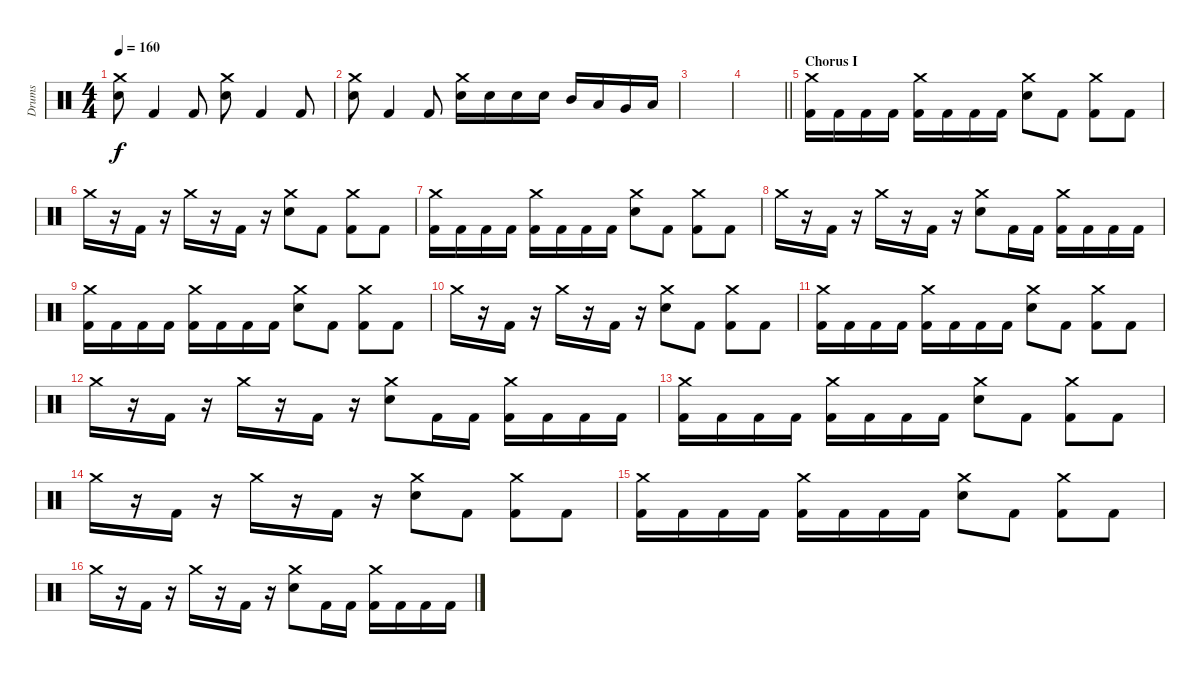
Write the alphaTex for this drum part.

\track ("Drums" "Drums") {instrument percussion}
\staff {score}
\articulation defaults
\ts (4 4)
\tempo 160
\clef neutral
\ks c
("Crash medium (hit)" "Snare (hit) 2").8{dy f} "Kick (hit) 2".4 "Kick (hit) 2".8 ("Crash medium (hit)" "Snare (hit) 2").8 "Kick (hit) 2".4 "Kick (hit) 2".8 |
("Crash medium (hit)" "Snare (hit) 2").8 "Kick (hit) 2".4 "Kick (hit) 2".8 ("Crash medium (hit)" "Snare (hit) 2").16 "Snare (hit) 2".16 "Snare (hit) 2".16 "Snare (hit) 2".16 "Mid Tom (hit)".16 "Low Tom (hit)".16 "Very Low Tom (hit)".16 "Low Floor Tom (hit)".16 |
|
\barLineRight lightlight
|
\section ("" "Chorus I")
("Crash medium (hit)" "Kick (hit) 2").16 "Kick (hit) 2".16 "Kick (hit) 2".16 "Kick (hit) 2".16 ("Crash medium (hit)" "Kick (hit) 2").16 "Kick (hit) 2".16 "Kick (hit) 2".16 "Kick (hit) 2".16 ("Crash medium (hit)" "Snare (hit) 2").8 "Kick (hit) 2".8 ("Crash medium (hit)" "Kick (hit) 2").8 "Kick (hit) 2".8 |
"Crash medium (hit)".16 r.16 "Kick (hit) 2".16 r.16 "Crash medium (hit)".16 r.16 "Kick (hit) 2".16 r.16 ("Crash medium (hit)" "Snare (hit) 2").8 "Kick (hit) 2".8 ("Crash medium (hit)" "Kick (hit) 2").8 "Kick (hit) 2".8 |
("Crash medium (hit)" "Kick (hit) 2").16 "Kick (hit) 2".16 "Kick (hit) 2".16 "Kick (hit) 2".16 ("Crash medium (hit)" "Kick (hit) 2").16 "Kick (hit) 2".16 "Kick (hit) 2".16 "Kick (hit) 2".16 ("Crash medium (hit)" "Snare (hit) 2").8 "Kick (hit) 2".8 ("Crash medium (hit)" "Kick (hit) 2").8 "Kick (hit) 2".8 |
"Crash medium (hit)".16 r.16 "Kick (hit) 2".16 r.16 "Crash medium (hit)".16 r.16 "Kick (hit) 2".16 r.16 ("Crash medium (hit)" "Snare (hit) 2").8 "Kick (hit) 2".16 "Kick (hit) 2".16 ("Crash medium (hit)" "Kick (hit) 2").16 "Kick (hit) 2".16 "Kick (hit) 2".16 "Kick (hit) 2".16 |
("Crash medium (hit)" "Kick (hit) 2").16 "Kick (hit) 2".16 "Kick (hit) 2".16 "Kick (hit) 2".16 ("Crash medium (hit)" "Kick (hit) 2").16 "Kick (hit) 2".16 "Kick (hit) 2".16 "Kick (hit) 2".16 ("Crash medium (hit)" "Snare (hit) 2").8 "Kick (hit) 2".8 ("Crash medium (hit)" "Kick (hit) 2").8 "Kick (hit) 2".8 |
"Crash medium (hit)".16 r.16 "Kick (hit) 2".16 r.16 "Crash medium (hit)".16 r.16 "Kick (hit) 2".16 r.16 ("Crash medium (hit)" "Snare (hit) 2").8 "Kick (hit) 2".8 ("Crash medium (hit)" "Kick (hit) 2").8 "Kick (hit) 2".8 |
("Crash medium (hit)" "Kick (hit) 2").16 "Kick (hit) 2".16 "Kick (hit) 2".16 "Kick (hit) 2".16 ("Crash medium (hit)" "Kick (hit) 2").16 "Kick (hit) 2".16 "Kick (hit) 2".16 "Kick (hit) 2".16 ("Crash medium (hit)" "Snare (hit) 2").8 "Kick (hit) 2".8 ("Crash medium (hit)" "Kick (hit) 2").8 "Kick (hit) 2".8 |
"Crash medium (hit)".16 r.16 "Kick (hit) 2".16 r.16 "Crash medium (hit)".16 r.16 "Kick (hit) 2".16 r.16 ("Crash medium (hit)" "Snare (hit) 2").8 "Kick (hit) 2".16 "Kick (hit) 2".16 ("Crash medium (hit)" "Kick (hit) 2").16 "Kick (hit) 2".16 "Kick (hit) 2".16 "Kick (hit) 2".16 |
("Crash medium (hit)" "Kick (hit) 2").16 "Kick (hit) 2".16 "Kick (hit) 2".16 "Kick (hit) 2".16 ("Crash medium (hit)" "Kick (hit) 2").16 "Kick (hit) 2".16 "Kick (hit) 2".16 "Kick (hit) 2".16 ("Crash medium (hit)" "Snare (hit) 2").8 "Kick (hit) 2".8 ("Crash medium (hit)" "Kick (hit) 2").8 "Kick (hit) 2".8 |
"Crash medium (hit)".16 r.16 "Kick (hit) 2".16 r.16 "Crash medium (hit)".16 r.16 "Kick (hit) 2".16 r.16 ("Crash medium (hit)" "Snare (hit) 2").8 "Kick (hit) 2".8 ("Crash medium (hit)" "Kick (hit) 2").8 "Kick (hit) 2".8 |
("Crash medium (hit)" "Kick (hit) 2").16 "Kick (hit) 2".16 "Kick (hit) 2".16 "Kick (hit) 2".16 ("Crash medium (hit)" "Kick (hit) 2").16 "Kick (hit) 2".16 "Kick (hit) 2".16 "Kick (hit) 2".16 ("Crash medium (hit)" "Snare (hit) 2").8 "Kick (hit) 2".8 ("Crash medium (hit)" "Kick (hit) 2").8 "Kick (hit) 2".8 |
"Crash medium (hit)".16 r.16 "Kick (hit) 2".16 r.16 "Crash medium (hit)".16 r.16 "Kick (hit) 2".16 r.16 ("Crash medium (hit)" "Snare (hit) 2").8 "Kick (hit) 2".16 "Kick (hit) 2".16 ("Crash medium (hit)" "Kick (hit) 2").16 "Kick (hit) 2".16 "Kick (hit) 2".16 "Kick (hit) 2".16
